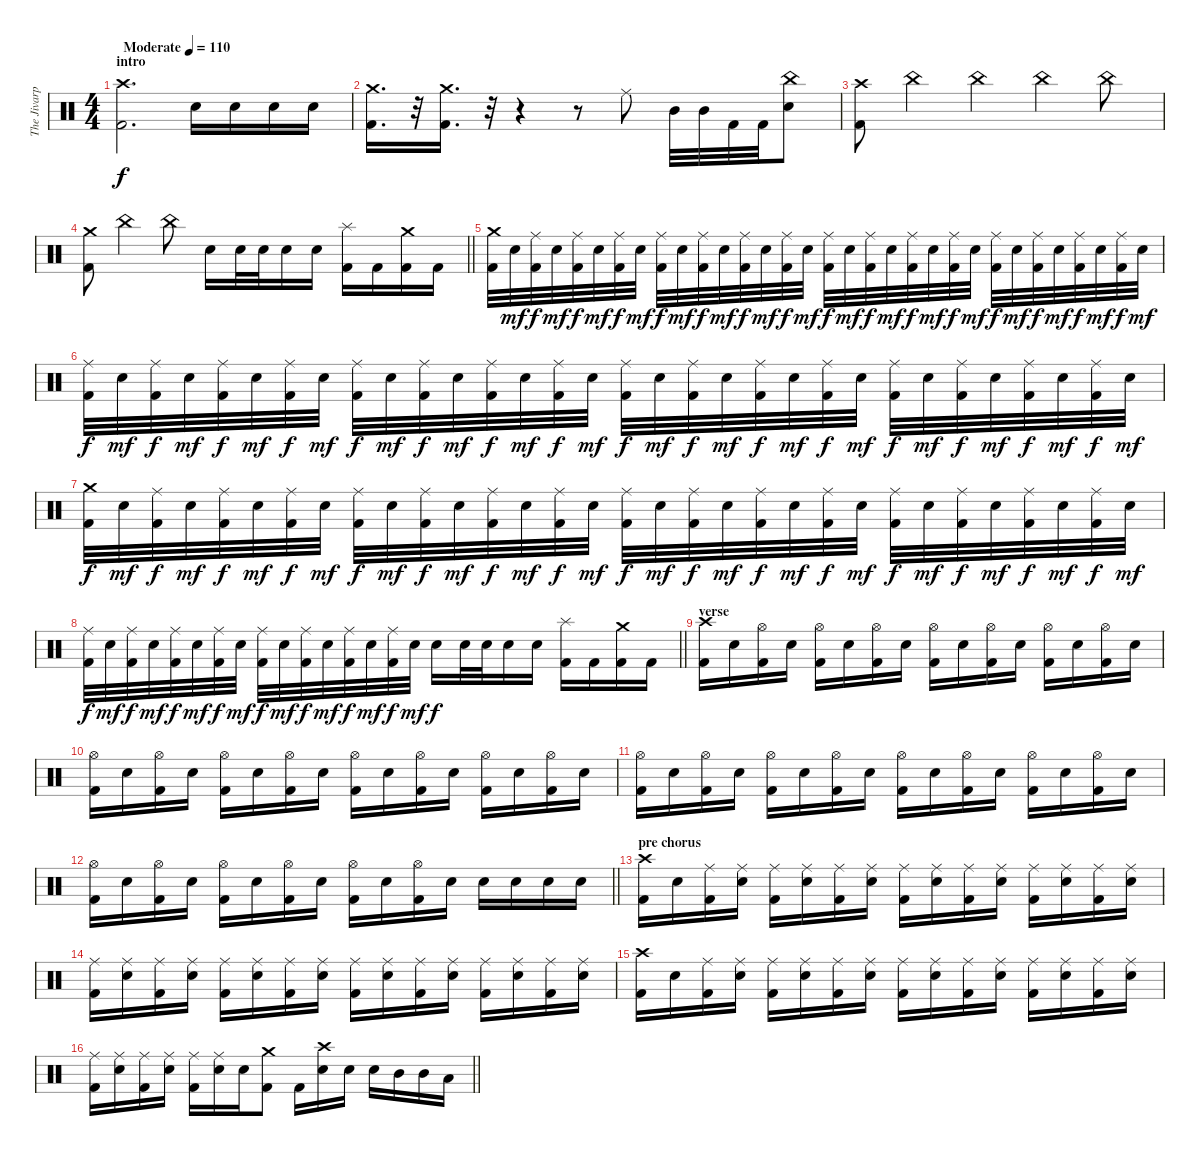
\track ("The Jivarp" "The Jivarp") {instrument percussion}
\staff {score}
\articulation defaults
\ts (4 4)
\section ("" "intro")
\tempo (110 "Moderate")
\clef neutral
\ks c
("Crash high (hit)" "Kick (hit) 2").2{d dy f} "Electric Snare (hit)".16 "Electric Snare (hit)".16 "Electric Snare (hit)".16 "Electric Snare (hit)".16 |
("Crash medium (hit)" "Kick (hit) 2").16{d} r.32{volume 0} ("Crash medium (hit)" "Kick (hit) 2").16{d volume 16} r.32{volume 0} r.4 r.8 "Ride (middle)".8{volume 16} "Mid Tom (hit)".32 "Mid Tom (hit)".32 "Kick (hit) 2".32 "Kick (hit) 2".32 ("China (hit)" "Electric Snare (hit)").8 |
("Crash high (hit)" "Kick (hit) 2").8 "China (hit)".4 "China (hit)".4 "China (hit)".4 "China (hit)".8 |
\barLineRight lightlight
("Crash medium (hit)" "Kick (hit) 2").8 "China (hit)".4 "China (hit)".8 "Electric Snare (hit)".16 "Electric Snare (hit)".32 "Electric Snare (hit)".32 "Electric Snare (hit)".16 "Electric Snare (hit)".16 ("Splash (hit)" "Kick (hit) 2").16 "Kick (hit) 2".16 ("Crash medium (hit)" "Kick (hit) 2").16 "Kick (hit) 2".16 |
\section ("" "")
("Crash medium (hit)" "Kick (hit) 2").32 "Electric Snare (hit)".32{dy mf} ("Ride (middle)" "Kick (hit) 2").32{dy f} "Electric Snare (hit)".32{dy mf} ("Ride (middle)" "Kick (hit) 2").32{dy f} "Electric Snare (hit)".32{dy mf} ("Ride (middle)" "Kick (hit) 2").32{dy f} "Electric Snare (hit)".32{dy mf} ("Ride (middle)" "Kick (hit) 2").32{dy f} "Electric Snare (hit)".32{dy mf} ("Ride (middle)" "Kick (hit) 2").32{dy f} "Electric Snare (hit)".32{dy mf} ("Ride (middle)" "Kick (hit) 2").32{dy f} "Electric Snare (hit)".32{dy mf} ("Ride (middle)" "Kick (hit) 2").32{dy f} "Electric Snare (hit)".32{dy mf} ("Ride (middle)" "Kick (hit) 2").32{dy f} "Electric Snare (hit)".32{dy mf} ("Ride (middle)" "Kick (hit) 2").32{dy f} "Electric Snare (hit)".32{dy mf} ("Ride (middle)" "Kick (hit) 2").32{dy f} "Electric Snare (hit)".32{dy mf} ("Ride (middle)" "Kick (hit) 2").32{dy f} "Electric Snare (hit)".32{dy mf} ("Ride (middle)" "Kick (hit) 2").32{dy f} "Electric Snare (hit)".32{dy mf} ("Ride (middle)" "Kick (hit) 2").32{dy f} "Electric Snare (hit)".32{dy mf} ("Ride (middle)" "Kick (hit) 2").32{dy f} "Electric Snare (hit)".32{dy mf} ("Ride (middle)" "Kick (hit) 2").32{dy f} "Electric Snare (hit)".32{dy mf} |
("Ride (middle)" "Kick (hit) 2").32{dy f} "Electric Snare (hit)".32{dy mf} ("Ride (middle)" "Kick (hit) 2").32{dy f} "Electric Snare (hit)".32{dy mf} ("Ride (middle)" "Kick (hit) 2").32{dy f} "Electric Snare (hit)".32{dy mf} ("Ride (middle)" "Kick (hit) 2").32{dy f} "Electric Snare (hit)".32{dy mf} ("Ride (middle)" "Kick (hit) 2").32{dy f} "Electric Snare (hit)".32{dy mf} ("Ride (middle)" "Kick (hit) 2").32{dy f} "Electric Snare (hit)".32{dy mf} ("Ride (middle)" "Kick (hit) 2").32{dy f} "Electric Snare (hit)".32{dy mf} ("Ride (middle)" "Kick (hit) 2").32{dy f} "Electric Snare (hit)".32{dy mf} ("Ride (middle)" "Kick (hit) 2").32{dy f} "Electric Snare (hit)".32{dy mf} ("Ride (middle)" "Kick (hit) 2").32{dy f} "Electric Snare (hit)".32{dy mf} ("Ride (middle)" "Kick (hit) 2").32{dy f} "Electric Snare (hit)".32{dy mf} ("Ride (middle)" "Kick (hit) 2").32{dy f} "Electric Snare (hit)".32{dy mf} ("Ride (middle)" "Kick (hit) 2").32{dy f} "Electric Snare (hit)".32{dy mf} ("Ride (middle)" "Kick (hit) 2").32{dy f} "Electric Snare (hit)".32{dy mf} ("Ride (middle)" "Kick (hit) 2").32{dy f} "Electric Snare (hit)".32{dy mf} ("Ride (middle)" "Kick (hit) 2").32{dy f} "Electric Snare (hit)".32{dy mf} |
("Crash medium (hit)" "Kick (hit) 2").32{dy f} "Electric Snare (hit)".32{dy mf} ("Ride (middle)" "Kick (hit) 2").32{dy f} "Electric Snare (hit)".32{dy mf} ("Ride (middle)" "Kick (hit) 2").32{dy f} "Electric Snare (hit)".32{dy mf} ("Ride (middle)" "Kick (hit) 2").32{dy f} "Electric Snare (hit)".32{dy mf} ("Ride (middle)" "Kick (hit) 2").32{dy f} "Electric Snare (hit)".32{dy mf} ("Ride (middle)" "Kick (hit) 2").32{dy f} "Electric Snare (hit)".32{dy mf} ("Ride (middle)" "Kick (hit) 2").32{dy f} "Electric Snare (hit)".32{dy mf} ("Ride (middle)" "Kick (hit) 2").32{dy f} "Electric Snare (hit)".32{dy mf} ("Ride (middle)" "Kick (hit) 2").32{dy f} "Electric Snare (hit)".32{dy mf} ("Ride (middle)" "Kick (hit) 2").32{dy f} "Electric Snare (hit)".32{dy mf} ("Ride (middle)" "Kick (hit) 2").32{dy f} "Electric Snare (hit)".32{dy mf} ("Ride (middle)" "Kick (hit) 2").32{dy f} "Electric Snare (hit)".32{dy mf} ("Ride (middle)" "Kick (hit) 2").32{dy f} "Electric Snare (hit)".32{dy mf} ("Ride (middle)" "Kick (hit) 2").32{dy f} "Electric Snare (hit)".32{dy mf} ("Ride (middle)" "Kick (hit) 2").32{dy f} "Electric Snare (hit)".32{dy mf} ("Ride (middle)" "Kick (hit) 2").32{dy f} "Electric Snare (hit)".32{dy mf} |
\barLineRight lightlight
("Ride (middle)" "Kick (hit) 2").32{dy f} "Electric Snare (hit)".32{dy mf} ("Ride (middle)" "Kick (hit) 2").32{dy f} "Electric Snare (hit)".32{dy mf} ("Ride (middle)" "Kick (hit) 2").32{dy f} "Electric Snare (hit)".32{dy mf} ("Ride (middle)" "Kick (hit) 2").32{dy f} "Electric Snare (hit)".32{dy mf} ("Ride (middle)" "Kick (hit) 2").32{dy f} "Electric Snare (hit)".32{dy mf} ("Ride (middle)" "Kick (hit) 2").32{dy f} "Electric Snare (hit)".32{dy mf} ("Ride (middle)" "Kick (hit) 2").32{dy f} "Electric Snare (hit)".32{dy mf} ("Ride (middle)" "Kick (hit) 2").32{dy f} "Electric Snare (hit)".32{dy mf} "Electric Snare (hit)".16{dy f} "Electric Snare (hit)".32 "Electric Snare (hit)".32 "Electric Snare (hit)".16 "Electric Snare (hit)".16 ("Splash (hit)" "Kick (hit) 2").16 "Kick (hit) 2".16 ("Crash medium (hit)" "Kick (hit) 2").16 "Kick (hit) 2".16 |
\section ("" "verse")
("Crash high (hit)" "Kick (hit) 2").16 "Electric Snare (hit)".16 ("Hi-Hat (open)" "Kick (hit) 2").16 "Electric Snare (hit)".16 ("Hi-Hat (open)" "Kick (hit) 2").16 "Electric Snare (hit)".16 ("Hi-Hat (open)" "Kick (hit) 2").16 "Electric Snare (hit)".16 ("Hi-Hat (open)" "Kick (hit) 2").16 "Electric Snare (hit)".16 ("Hi-Hat (open)" "Kick (hit) 2").16 "Electric Snare (hit)".16 ("Hi-Hat (open)" "Kick (hit) 2").16 "Electric Snare (hit)".16 ("Hi-Hat (open)" "Kick (hit) 2").16 "Electric Snare (hit)".16 |
("Hi-Hat (open)" "Kick (hit) 2").16 "Electric Snare (hit)".16 ("Hi-Hat (open)" "Kick (hit) 2").16 "Electric Snare (hit)".16 ("Hi-Hat (open)" "Kick (hit) 2").16 "Electric Snare (hit)".16 ("Hi-Hat (open)" "Kick (hit) 2").16 "Electric Snare (hit)".16 ("Hi-Hat (open)" "Kick (hit) 2").16 "Electric Snare (hit)".16 ("Hi-Hat (open)" "Kick (hit) 2").16 "Electric Snare (hit)".16 ("Hi-Hat (open)" "Kick (hit) 2").16 "Electric Snare (hit)".16 ("Hi-Hat (open)" "Kick (hit) 2").16 "Electric Snare (hit)".16 |
("Hi-Hat (open)" "Kick (hit) 2").16 "Electric Snare (hit)".16 ("Hi-Hat (open)" "Kick (hit) 2").16 "Electric Snare (hit)".16 ("Hi-Hat (open)" "Kick (hit) 2").16 "Electric Snare (hit)".16 ("Hi-Hat (open)" "Kick (hit) 2").16 "Electric Snare (hit)".16 ("Hi-Hat (open)" "Kick (hit) 2").16 "Electric Snare (hit)".16 ("Hi-Hat (open)" "Kick (hit) 2").16 "Electric Snare (hit)".16 ("Hi-Hat (open)" "Kick (hit) 2").16 "Electric Snare (hit)".16 ("Hi-Hat (open)" "Kick (hit) 2").16 "Electric Snare (hit)".16 |
\barLineRight lightlight
("Hi-Hat (open)" "Kick (hit) 2").16 "Electric Snare (hit)".16 ("Hi-Hat (open)" "Kick (hit) 2").16 "Electric Snare (hit)".16 ("Hi-Hat (open)" "Kick (hit) 2").16 "Electric Snare (hit)".16 ("Hi-Hat (open)" "Kick (hit) 2").16 "Electric Snare (hit)".16 ("Hi-Hat (open)" "Kick (hit) 2").16 "Electric Snare (hit)".16 ("Hi-Hat (open)" "Kick (hit) 2").16 "Electric Snare (hit)".16 "Electric Snare (hit)".16 "Electric Snare (hit)".16 "Electric Snare (hit)".16 "Electric Snare (hit)".16 |
\section ("" "pre chorus")
("Crash high (hit)" "Kick (hit) 2").16 "Electric Snare (hit)".16 ("Ride (middle)" "Kick (hit) 2").16 ("Ride (middle)" "Electric Snare (hit)").16 ("Ride (middle)" "Kick (hit) 2").16 ("Ride (middle)" "Electric Snare (hit)").16 ("Ride (middle)" "Kick (hit) 2").16 ("Ride (middle)" "Electric Snare (hit)").16 ("Ride (middle)" "Kick (hit) 2").16 ("Ride (middle)" "Electric Snare (hit)").16 ("Ride (middle)" "Kick (hit) 2").16 ("Ride (middle)" "Electric Snare (hit)").16 ("Ride (middle)" "Kick (hit) 2").16 ("Ride (middle)" "Electric Snare (hit)").16 ("Ride (middle)" "Kick (hit) 2").16 ("Ride (middle)" "Electric Snare (hit)").16 |
("Ride (middle)" "Kick (hit) 2").16 ("Ride (middle)" "Electric Snare (hit)").16 ("Ride (middle)" "Kick (hit) 2").16 ("Ride (middle)" "Electric Snare (hit)").16 ("Ride (middle)" "Kick (hit) 2").16 ("Ride (middle)" "Electric Snare (hit)").16 ("Ride (middle)" "Kick (hit) 2").16 ("Ride (middle)" "Electric Snare (hit)").16 ("Ride (middle)" "Kick (hit) 2").16 ("Ride (middle)" "Electric Snare (hit)").16 ("Ride (middle)" "Kick (hit) 2").16 ("Ride (middle)" "Electric Snare (hit)").16 ("Ride (middle)" "Kick (hit) 2").16 ("Ride (middle)" "Electric Snare (hit)").16 ("Ride (middle)" "Kick (hit) 2").16 ("Ride (middle)" "Electric Snare (hit)").16 |
("Crash high (hit)" "Kick (hit) 2").16 "Electric Snare (hit)".16 ("Ride (middle)" "Kick (hit) 2").16 ("Ride (middle)" "Electric Snare (hit)").16 ("Ride (middle)" "Kick (hit) 2").16 ("Ride (middle)" "Electric Snare (hit)").16 ("Ride (middle)" "Kick (hit) 2").16 ("Ride (middle)" "Electric Snare (hit)").16 ("Ride (middle)" "Kick (hit) 2").16 ("Ride (middle)" "Electric Snare (hit)").16 ("Ride (middle)" "Kick (hit) 2").16 ("Ride (middle)" "Electric Snare (hit)").16 ("Ride (middle)" "Kick (hit) 2").16 ("Ride (middle)" "Electric Snare (hit)").16 ("Ride (middle)" "Kick (hit) 2").16 ("Ride (middle)" "Electric Snare (hit)").16 |
\barLineRight lightlight
("Ride (middle)" "Kick (hit) 2").16 ("Ride (middle)" "Electric Snare (hit)").16 ("Ride (middle)" "Kick (hit) 2").16 ("Ride (middle)" "Electric Snare (hit)").16 ("Ride (middle)" "Kick (hit) 2").16 ("Ride (middle)" "Electric Snare (hit)").16 "Electric Snare (hit)".16 ("Crash medium (hit)" "Kick (hit) 2").8 "Kick (hit) 2".16 ("Crash high (hit)" "Electric Snare (hit)").16 "Electric Snare (hit)".16 "Electric Snare (hit)".16 "Mid Tom (hit)".16 "Mid Tom (hit)".16 "Low Tom (hit)".16
